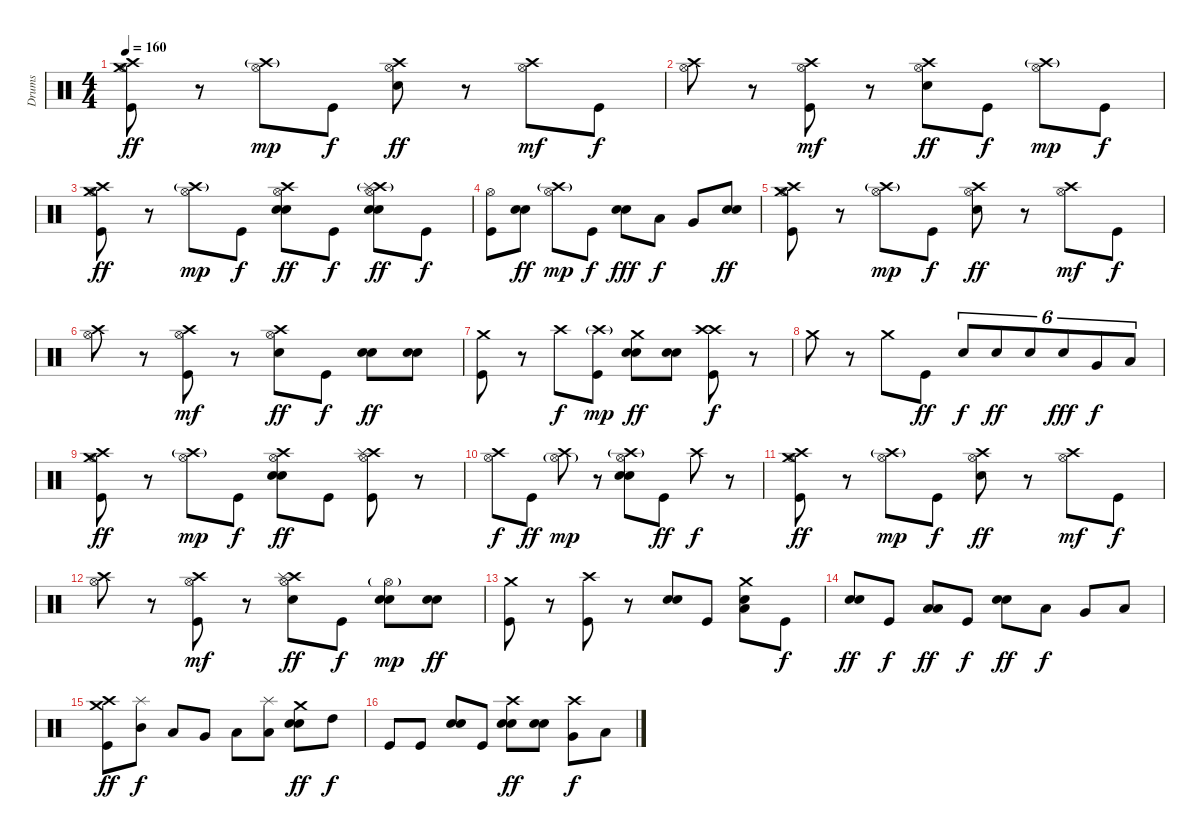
\track ("Drums" "Drums") {instrument percussion}
\staff {score}
\articulation defaults
\ts (4 4)
\tempo 160
\clef neutral
\ks c
("Kick (hit)" "Hi-Hat (open)" "Crash high (hit)" "Crash medium (hit)").8{dy ff} r.8 ("Hi-Hat (open)" "Crash high (hit)"{g}).8{dy mp} "Kick (hit)".8{dy f} ("Electric Snare (hit)" "Hi-Hat (open)" "Crash high (hit)").8{dy ff} r.8 ("Hi-Hat (open)" "Crash high (hit)").8{dy mf} "Kick (hit)".8{dy f} |
("Hi-Hat (open)" "Crash high (hit)").8 r.8 ("Kick (hit)" "Hi-Hat (open)" "Crash high (hit)").8{dy mf} r.8 ("Electric Snare (hit)" "Hi-Hat (open)" "Crash high (hit)").8{dy ff} "Kick (hit)".8{dy f} ("Hi-Hat (open)" "Crash high (hit)"{g}).8{dy mp} "Kick (hit)".8{dy f} |
("Kick (hit)" "Hi-Hat (open)" "Crash high (hit)" "Crash medium (hit)").8{dy ff} r.8 ("Hi-Hat (open)" "Crash high (hit)"{g}).8{dy mp} "Kick (hit)".8{dy f} ("Electric Snare (hit)" "Electric Snare (hit)" "Hi-Hat (open)" "Crash high (hit)").8{dy ff} "Kick (hit)".8{dy f} ("Electric Snare (hit)" "Electric Snare (hit)" "Hi-Hat (open)" "Crash high (hit)"{g} "Splash (hit)").8{dy ff} "Kick (hit)".8{dy f} |
("Kick (hit)" "Hi-Hat (open)").8 ("Electric Snare (hit)" "Electric Snare (hit)").8{dy ff} ("Hi-Hat (open)" "Crash high (hit)"{g}).8{dy mp} "Kick (hit)".8{dy f} ("Electric Snare (hit)" "Electric Snare (hit)").8{dy fff} "Low Tom (hit)".8{dy f} "Very Low Tom (hit)".8 ("Electric Snare (hit)" "Electric Snare (hit)").8{dy ff} |
("Kick (hit)" "Hi-Hat (open)" "Crash high (hit)" "Crash medium (hit)").8 r.8 ("Hi-Hat (open)" "Crash high (hit)"{g}).8{dy mp} "Kick (hit)".8{dy f} ("Electric Snare (hit)" "Hi-Hat (open)" "Crash high (hit)").8{dy ff} r.8 ("Hi-Hat (open)" "Crash high (hit)").8{dy mf} "Kick (hit)".8{dy f} |
("Hi-Hat (open)" "Crash high (hit)").8 r.8 ("Kick (hit)" "Hi-Hat (open)" "Crash high (hit)").8{dy mf} r.8 ("Electric Snare (hit)" "Hi-Hat (open)" "Crash high (hit)").8{dy ff} "Kick (hit)".8{dy f} ("Electric Snare (hit)" "Electric Snare (hit)").8{dy ff} ("Electric Snare (hit)" "Electric Snare (hit)").8 |
("Kick (hit)" "Crash medium (hit)").8 r.8 "Crash high (hit)".8{dy f} ("Kick (hit)" "Crash high (hit)"{g}).8{dy mp} ("Electric Snare (hit)" "Electric Snare (hit)" "Crash medium (hit)").8{dy ff} ("Electric Snare (hit)" "Electric Snare (hit)").8 ("Kick (hit)" "Crash high (hit)" "Crash high (hit)").8{dy f} r.8 |
"Crash medium (hit)".8 r.8 "Crash medium (hit)".8 "Kick (hit)".8{dy ff} "Electric Snare (hit)".8{tu (6 4) dy f} "Electric Snare (hit)".8{tu (6 4) dy ff} "Electric Snare (hit)".8{tu (6 4)} "Electric Snare (hit)".8{tu (6 4) dy fff} "Very Low Tom (hit)".8{tu (6 4) dy f} "Low Floor Tom (hit)".8{tu (6 4)} |
("Kick (hit)" "Hi-Hat (open)" "Crash high (hit)" "Crash medium (hit)").8{dy ff} r.8 ("Hi-Hat (open)" "Crash high (hit)"{g}).8{dy mp} "Kick (hit)".8{dy f} ("Electric Snare (hit)" "Electric Snare (hit)" "Hi-Hat (open)" "Crash high (hit)").8{dy ff} "Kick (hit)".8 ("Kick (hit)" "Hi-Hat (open)" "Crash high (hit)" "Splash (hit)").8 r.8 |
("Hi-Hat (open)" "Crash high (hit)").8{dy f} "Kick (hit)".8{dy ff} ("Hi-Hat (open)"{g} "Crash high (hit)").8{dy mp} r.8 ("Electric Snare (hit)" "Electric Snare (hit)" "Hi-Hat (open)" "Crash high (hit)"{g}).8 "Kick (hit)".8{dy ff} "Crash high (hit)".8{dy f} r.8 |
("Kick (hit)" "Hi-Hat (open)" "Crash high (hit)" "Crash medium (hit)").8{dy ff} r.8 ("Hi-Hat (open)" "Crash high (hit)"{g}).8{dy mp} "Kick (hit)".8{dy f} ("Electric Snare (hit)" "Hi-Hat (open)" "Crash high (hit)").8{dy ff} r.8 ("Hi-Hat (open)" "Crash high (hit)").8{dy mf} "Kick (hit)".8{dy f} |
("Hi-Hat (open)" "Crash high (hit)").8 r.8 ("Kick (hit)" "Hi-Hat (open)" "Crash high (hit)").8{dy mf} r.8 ("Electric Snare (hit)" "Hi-Hat (open)" "Crash high (hit)" "Splash (hit)").8{dy ff} "Kick (hit)".8{dy f} ("Electric Snare (hit)" "Electric Snare (hit)" "Hi-Hat (open)"{g}).8{dy mp} ("Electric Snare (hit)" "Electric Snare (hit)").8{dy ff} |
("Kick (hit)" "Crash medium (hit)").8 r.8 ("Kick (hit)" "Crash high (hit)").8 r.8 ("Electric Snare (hit)" "Electric Snare (hit)").8 "Kick (hit)".8 ("Low Floor Tom (hit)" "Electric Snare (hit)" "Crash medium (hit)").8 "Kick (hit)".8{dy f} |
("Electric Snare (hit)" "Electric Snare (hit)").8{dy ff} "Kick (hit)".8{dy f} ("Low Floor Tom (hit)" "Low Floor Tom (hit)").8{dy ff} "Kick (hit)".8{dy f} ("Electric Snare (hit)" "Electric Snare (hit)").8{dy ff} "Low Tom (hit)".8{dy f} "Very Low Tom (hit)".8 "Low Floor Tom (hit)".8 |
("Kick (hit)" "Crash high (hit)" "Crash medium (hit)").8{dy ff} ("Mid Tom (hit)" "Splash (hit)").8{dy f} "Low Tom (hit)".8 "Very Low Tom (hit)".8 "Low Tom (hit)".8 ("Low Floor Tom (hit)" "Splash (hit)").8 ("Electric Snare (hit)" "Electric Snare (hit)" "Crash medium (hit)").8{dy ff} "High Tom (hit)".8{dy f} |
"Kick (hit)".8 "Kick (hit)".8 ("Electric Snare (hit)" "Electric Snare (hit)").8 "Kick (hit)".8 ("Electric Snare (hit)" "Electric Snare (hit)" "Crash high (hit)").8{dy ff} ("Electric Snare (hit)" "Electric Snare (hit)").8 ("Very Low Tom (hit)" "Crash high (hit)").8{dy f} "Low Floor Tom (hit)".8
